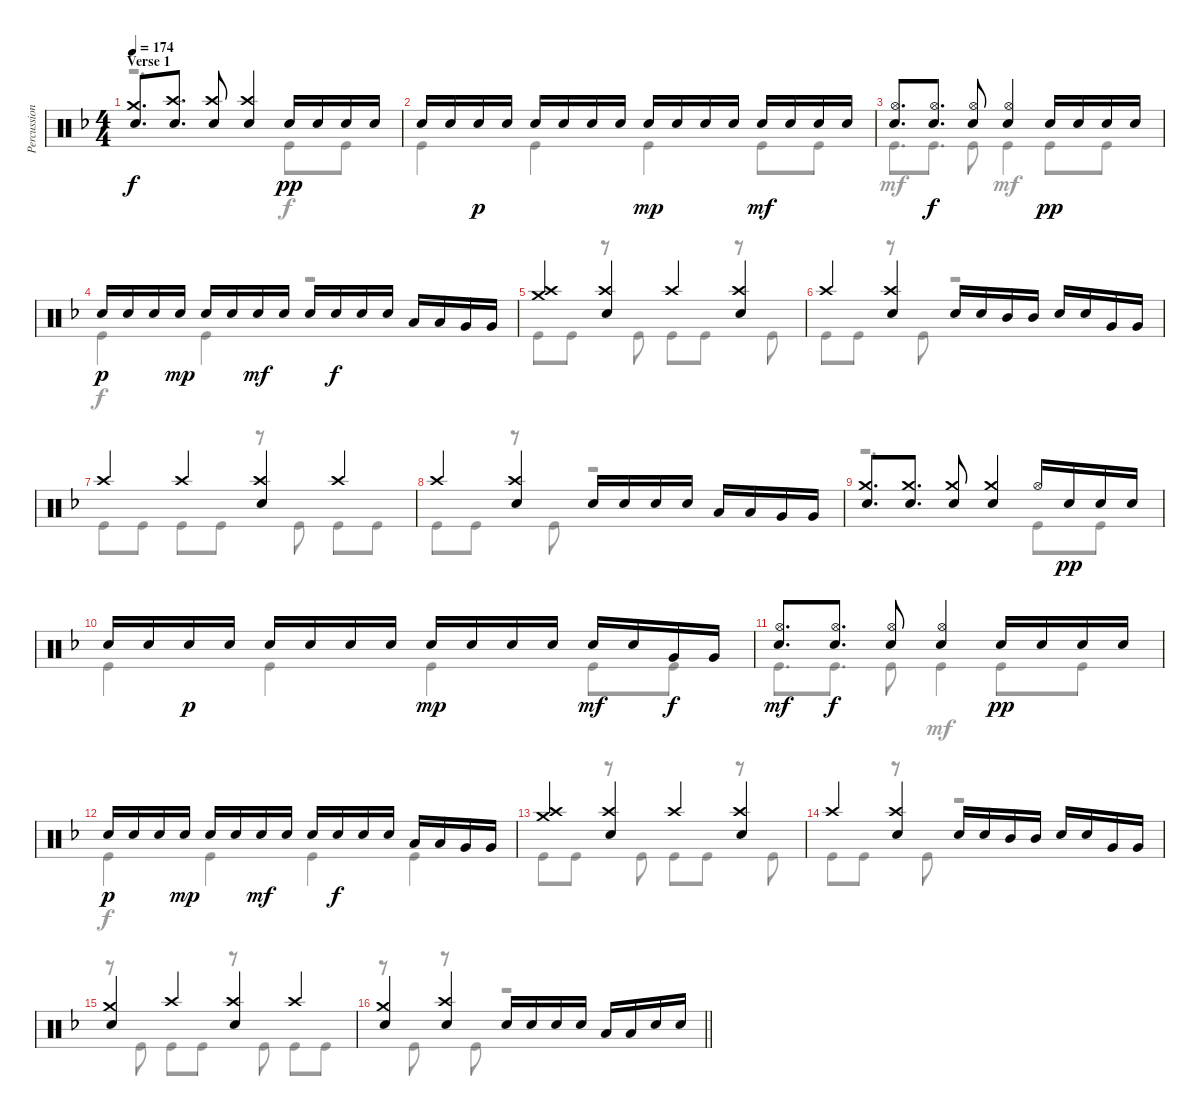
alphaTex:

\track ("Percussion" "Percussion") {instrument percussion}
\staff {score}
\articulation defaults
\voice
\ts (4 4)
\section ("" "Verse 1")
\tempo 174
\clef neutral
\ks dminor
("Crash medium (hit)" "Electric Snare (hit)").8{d dy f} ("Crash high (hit)" "Electric Snare (hit)").8{d} ("Crash high (hit)" "Electric Snare (hit)").8 ("Crash high (hit)" "Electric Snare (hit)").4 "Electric Snare (hit)".16{dy pp} "Electric Snare (hit)".16 "Electric Snare (hit)".16 "Electric Snare (hit)".16 |
"Electric Snare (hit)".16 "Electric Snare (hit)".16 "Electric Snare (hit)".16{dy p} "Electric Snare (hit)".16 "Electric Snare (hit)".16 "Electric Snare (hit)".16 "Electric Snare (hit)".16 "Electric Snare (hit)".16 "Electric Snare (hit)".16{dy mp} "Electric Snare (hit)".16 "Electric Snare (hit)".16 "Electric Snare (hit)".16 "Electric Snare (hit)".16{dy mf} "Electric Snare (hit)".16 "Electric Snare (hit)".16 "Electric Snare (hit)".16 |
("Hi-Hat (open)" "Electric Snare (hit)").8{d} ("Hi-Hat (open)" "Electric Snare (hit)").8{d dy f} ("Hi-Hat (open)" "Electric Snare (hit)").8 ("Hi-Hat (open)" "Electric Snare (hit)").4 "Electric Snare (hit)".16{dy pp} "Electric Snare (hit)".16 "Electric Snare (hit)".16 "Electric Snare (hit)".16 |
"Electric Snare (hit)".16{dy p} "Electric Snare (hit)".16 "Electric Snare (hit)".16 "Electric Snare (hit)".16{dy mp} "Electric Snare (hit)".16 "Electric Snare (hit)".16 "Electric Snare (hit)".16{dy mf} "Electric Snare (hit)".16 "Electric Snare (hit)".16 "Electric Snare (hit)".16{dy f} "Electric Snare (hit)".16 "Electric Snare (hit)".16 "Low Tom (hit)".16 "Low Tom (hit)".16 "Very Low Tom (hit)".16 "Very Low Tom (hit)".16 |
("Crash medium (hit)" "Crash high (hit)").4 ("Crash high (hit)" "Electric Snare (hit)").4 "Crash high (hit)".4 ("Crash high (hit)" "Electric Snare (hit)").4 |
"Crash high (hit)".4 ("Crash high (hit)" "Electric Snare (hit)").4 "Electric Snare (hit)".16 "Electric Snare (hit)".16 "Mid Tom (hit)".16 "Mid Tom (hit)".16 "Electric Snare (hit)".16 "Electric Snare (hit)".16 "Very Low Tom (hit)".16 "Very Low Tom (hit)".16 |
"Crash high (hit)".4 "Crash high (hit)".4 ("Crash high (hit)" "Electric Snare (hit)").4 "Crash high (hit)".4 |
"Crash high (hit)".4 ("Crash high (hit)" "Electric Snare (hit)").4 "Electric Snare (hit)".16 "Electric Snare (hit)".16 "Electric Snare (hit)".16 "Electric Snare (hit)".16 "Low Tom (hit)".16 "Low Tom (hit)".16 "Very Low Tom (hit)".16 "Very Low Tom (hit)".16 |
("Crash medium (hit)" "Electric Snare (hit)").8{d} ("Crash medium (hit)" "Electric Snare (hit)").8{d} ("Crash medium (hit)" "Electric Snare (hit)").8 ("Crash medium (hit)" "Electric Snare (hit)").4 "Hi-Hat (open)".16 "Electric Snare (hit)".16{dy pp} "Electric Snare (hit)".16 "Electric Snare (hit)".16 |
"Electric Snare (hit)".16 "Electric Snare (hit)".16 "Electric Snare (hit)".16{dy p} "Electric Snare (hit)".16 "Electric Snare (hit)".16 "Electric Snare (hit)".16 "Electric Snare (hit)".16 "Electric Snare (hit)".16 "Electric Snare (hit)".16{dy mp} "Electric Snare (hit)".16 "Electric Snare (hit)".16 "Electric Snare (hit)".16 "Electric Snare (hit)".16{dy mf} "Electric Snare (hit)".16 "Very Low Tom (hit)".16{dy f} "Very Low Tom (hit)".16 |
("Hi-Hat (open)" "Electric Snare (hit)").8{d dy mf} ("Hi-Hat (open)" "Electric Snare (hit)").8{d dy f} ("Hi-Hat (open)" "Electric Snare (hit)").8 ("Hi-Hat (open)" "Electric Snare (hit)").4 "Electric Snare (hit)".16{dy pp} "Electric Snare (hit)".16 "Electric Snare (hit)".16 "Electric Snare (hit)".16 |
"Electric Snare (hit)".16{dy p} "Electric Snare (hit)".16 "Electric Snare (hit)".16 "Electric Snare (hit)".16{dy mp} "Electric Snare (hit)".16 "Electric Snare (hit)".16 "Electric Snare (hit)".16{dy mf} "Electric Snare (hit)".16 "Electric Snare (hit)".16 "Electric Snare (hit)".16{dy f} "Electric Snare (hit)".16 "Electric Snare (hit)".16 "Low Tom (hit)".16 "Low Tom (hit)".16 "Very Low Tom (hit)".16 "Very Low Tom (hit)".16 |
("Crash medium (hit)" "Crash high (hit)").4 ("Crash high (hit)" "Electric Snare (hit)").4 "Crash high (hit)".4 ("Crash high (hit)" "Electric Snare (hit)").4 |
"Crash high (hit)".4 ("Crash high (hit)" "Electric Snare (hit)").4 "Electric Snare (hit)".16 "Electric Snare (hit)".16 "Mid Tom (hit)".16 "Mid Tom (hit)".16 "Electric Snare (hit)".16 "Electric Snare (hit)".16 "Very Low Tom (hit)".16 "Very Low Tom (hit)".16 |
("Crash medium (hit)" "Electric Snare (hit)").4 "Crash high (hit)".4 ("Crash high (hit)" "Electric Snare (hit)").4 "Crash high (hit)".4 |
\barLineRight lightlight
("Crash medium (hit)" "Electric Snare (hit)").4 ("Crash high (hit)" "Electric Snare (hit)").4 "Electric Snare (hit)".16 "Electric Snare (hit)".16 "Electric Snare (hit)".16 "Electric Snare (hit)".16 "Low Tom (hit)".16 "Low Tom (hit)".16 "Electric Snare (hit)".16 "Electric Snare (hit)".16
\voice
\clef neutral
\ottava regular
\simile none
\ks dminor
r.2{d dy f} "Kick (hit)".8 "Kick (hit)".8 |
"Kick (hit)".4 "Kick (hit)".4 "Kick (hit)".4 "Kick (hit)".8 "Kick (hit)".8 |
"Kick (hit)".8{d dy mf} "Kick (hit)".8{d dy f} "Kick (hit)".8 "Kick (hit)".4{dy mf} "Kick (hit)".8 "Kick (hit)".8 |
"Kick (hit)".4{dy f} "Kick (hit)".4 r.2 |
"Kick (hit)".8 "Kick (hit)".8 r.8 "Kick (hit)".8 "Kick (hit)".8 "Kick (hit)".8 r.8 "Kick (hit)".8 |
"Kick (hit)".8 "Kick (hit)".8 r.8 "Kick (hit)".8 r.2 |
"Kick (hit)".8 "Kick (hit)".8 "Kick (hit)".8 "Kick (hit)".8 r.8 "Kick (hit)".8 "Kick (hit)".8 "Kick (hit)".8 |
"Kick (hit)".8 "Kick (hit)".8 r.8 "Kick (hit)".8 r.2 |
r.2{d} "Kick (hit)".8 "Kick (hit)".8 |
"Kick (hit)".4 "Kick (hit)".4 "Kick (hit)".4 "Kick (hit)".8 "Kick (hit)".8 |
"Kick (hit)".8{d dy mf} "Kick (hit)".8{d dy f} "Kick (hit)".8 "Kick (hit)".4{dy mf} "Kick (hit)".8 "Kick (hit)".8 |
"Kick (hit)".4{dy f} "Kick (hit)".4 "Kick (hit)".4 "Kick (hit)".4 |
"Kick (hit)".8 "Kick (hit)".8 r.8 "Kick (hit)".8 "Kick (hit)".8 "Kick (hit)".8 r.8 "Kick (hit)".8 |
"Kick (hit)".8 "Kick (hit)".8 r.8 "Kick (hit)".8 r.2 |
r.8 "Kick (hit)".8 "Kick (hit)".8 "Kick (hit)".8 r.8 "Kick (hit)".8 "Kick (hit)".8 "Kick (hit)".8 |
\barLineRight lightlight
r.8 "Kick (hit)".8 r.8 "Kick (hit)".8 r.2
